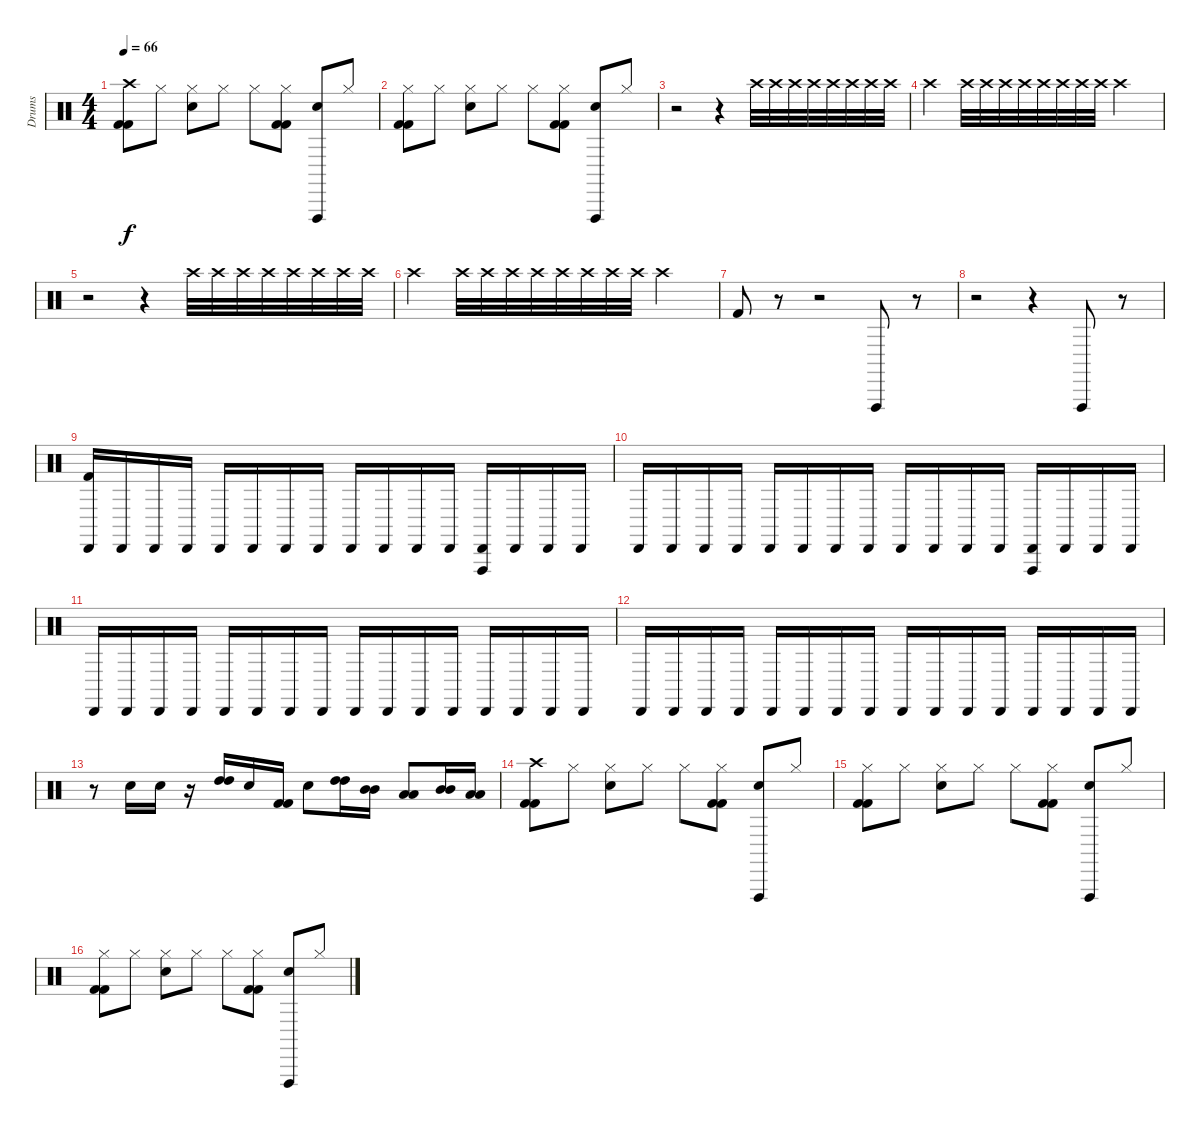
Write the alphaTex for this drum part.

\track ("Drums" "Drums") {instrument percussion}
\staff {score}
\articulation defaults
\ts (4 4)
\tempo 66
\clef neutral
\ks c
("Crash high (hit)" "Kick (hit) 2" "Kick (hit) 2").8{dy f} "Hi-Hat (closed)".8 ("Hi-Hat (closed)" "Snare (hit) 2").8 "Hi-Hat (closed)".8 "Hi-Hat (closed)".8 ("Hi-Hat (closed)" "Kick (hit) 2" "Kick (hit) 2").8 ("Vibraslap (hit)" "Snare (hit) 2").8 "Hi-Hat (closed)".8 |
("Hi-Hat (closed)" "Kick (hit) 2" "Kick (hit) 2").8 "Hi-Hat (closed)".8 ("Hi-Hat (closed)" "Snare (hit) 2").8 "Hi-Hat (closed)".8 "Hi-Hat (closed)".8 ("Hi-Hat (closed)" "Kick (hit) 2" "Kick (hit) 2").8 ("Vibraslap (hit)" "Snare (hit) 2").8 "Hi-Hat (closed)".8 |
r.2 r.4 "Crash high (hit)".32{volume 1} "Crash high (hit)".32 "Crash high (hit)".32 "Crash high (hit)".32 "Crash high (hit)".32 "Crash high (hit)".32 "Crash high (hit)".32 "Crash high (hit)".32 |
"Crash high (hit)".4 "Crash high (hit)".32 "Crash high (hit)".32 "Crash high (hit)".32 "Crash high (hit)".32 "Crash high (hit)".32 "Crash high (hit)".32 "Crash high (hit)".32 "Crash high (hit)".32 "Crash high (hit)".2 |
r.2 r.4 "Crash high (hit)".32 "Crash high (hit)".32 "Crash high (hit)".32 "Crash high (hit)".32 "Crash high (hit)".32 "Crash high (hit)".32 "Crash high (hit)".32 "Crash high (hit)".32 |
"Crash high (hit)".4 "Crash high (hit)".32 "Crash high (hit)".32 "Crash high (hit)".32 "Crash high (hit)".32 "Crash high (hit)".32 "Crash high (hit)".32 "Crash high (hit)".32 "Crash high (hit)".32 "Crash high (hit)".2 |
"Kick (hit) 2".8{volume 8} r.8 r.2 "Vibraslap (hit)".8 r.8 |
r.2 r.4 "Vibraslap (hit)".8 r.8 |
("Cabasa (hit)" "Kick (hit) 2").16{volume 4} "Cabasa (hit)".16 "Cabasa (hit)".16 "Cabasa (hit)".16 "Cabasa (hit)".16 "Cabasa (hit)".16 "Cabasa (hit)".16 "Cabasa (hit)".16 "Cabasa (hit)".16 "Cabasa (hit)".16 "Cabasa (hit)".16 "Cabasa (hit)".16 ("Cabasa (hit)" "Vibraslap (hit)").16 "Cabasa (hit)".16 "Cabasa (hit)".16 "Cabasa (hit)".16 |
"Cabasa (hit)".16 "Cabasa (hit)".16 "Cabasa (hit)".16 "Cabasa (hit)".16 "Cabasa (hit)".16 "Cabasa (hit)".16 "Cabasa (hit)".16 "Cabasa (hit)".16 "Cabasa (hit)".16 "Cabasa (hit)".16 "Cabasa (hit)".16 "Cabasa (hit)".16 ("Cabasa (hit)" "Vibraslap (hit)").16 "Cabasa (hit)".16 "Cabasa (hit)".16 "Cabasa (hit)".16 |
"Cabasa (hit)".16{volume 8} "Cabasa (hit)".16 "Cabasa (hit)".16 "Cabasa (hit)".16 "Cabasa (hit)".16 "Cabasa (hit)".16 "Cabasa (hit)".16 "Cabasa (hit)".16 "Cabasa (hit)".16 "Cabasa (hit)".16 "Cabasa (hit)".16 "Cabasa (hit)".16 "Cabasa (hit)".16 "Cabasa (hit)".16 "Cabasa (hit)".16 "Cabasa (hit)".16 |
"Cabasa (hit)".16 "Cabasa (hit)".16 "Cabasa (hit)".16 "Cabasa (hit)".16 "Cabasa (hit)".16 "Cabasa (hit)".16 "Cabasa (hit)".16 "Cabasa (hit)".16 "Cabasa (hit)".16 "Cabasa (hit)".16 "Cabasa (hit)".16 "Cabasa (hit)".16 "Cabasa (hit)".16 "Cabasa (hit)".16 "Cabasa (hit)".16 "Cabasa (hit)".16 |
r.8{volume 16} "Snare (hit) 2".16 "Snare (hit) 2".16 r.16 ("High Tom (hit)" "High Tom (hit)").16 "Snare (hit) 2".16 ("Kick (hit) 2" "Kick (hit) 2").16 "Snare (hit) 2".8 ("High Tom (hit)" "High Tom (hit)").16 ("Mid Tom (hit)" "Mid Tom (hit)").16 ("Low Tom (hit)" "Low Tom (hit)").8 ("Mid Tom (hit)" "Mid Tom (hit)").16 ("Low Tom (hit)" "Low Tom (hit)").16 |
("Crash high (hit)" "Kick (hit) 2" "Kick (hit) 2").8 "Hi-Hat (closed)".8 ("Hi-Hat (closed)" "Snare (hit) 2").8 "Hi-Hat (closed)".8 "Hi-Hat (closed)".8 ("Hi-Hat (closed)" "Kick (hit) 2" "Kick (hit) 2").8 ("Vibraslap (hit)" "Snare (hit) 2").8 "Hi-Hat (closed)".8 |
("Hi-Hat (closed)" "Kick (hit) 2" "Kick (hit) 2").8 "Hi-Hat (closed)".8 ("Hi-Hat (closed)" "Snare (hit) 2").8 "Hi-Hat (closed)".8 "Hi-Hat (closed)".8 ("Hi-Hat (closed)" "Kick (hit) 2" "Kick (hit) 2").8 ("Vibraslap (hit)" "Snare (hit) 2").8 "Hi-Hat (closed)".8 |
("Hi-Hat (closed)" "Kick (hit) 2" "Kick (hit) 2").8 "Hi-Hat (closed)".8 ("Hi-Hat (closed)" "Snare (hit) 2").8 "Hi-Hat (closed)".8 "Hi-Hat (closed)".8 ("Hi-Hat (closed)" "Kick (hit) 2" "Kick (hit) 2").8 ("Vibraslap (hit)" "Snare (hit) 2").8 "Hi-Hat (closed)".8
